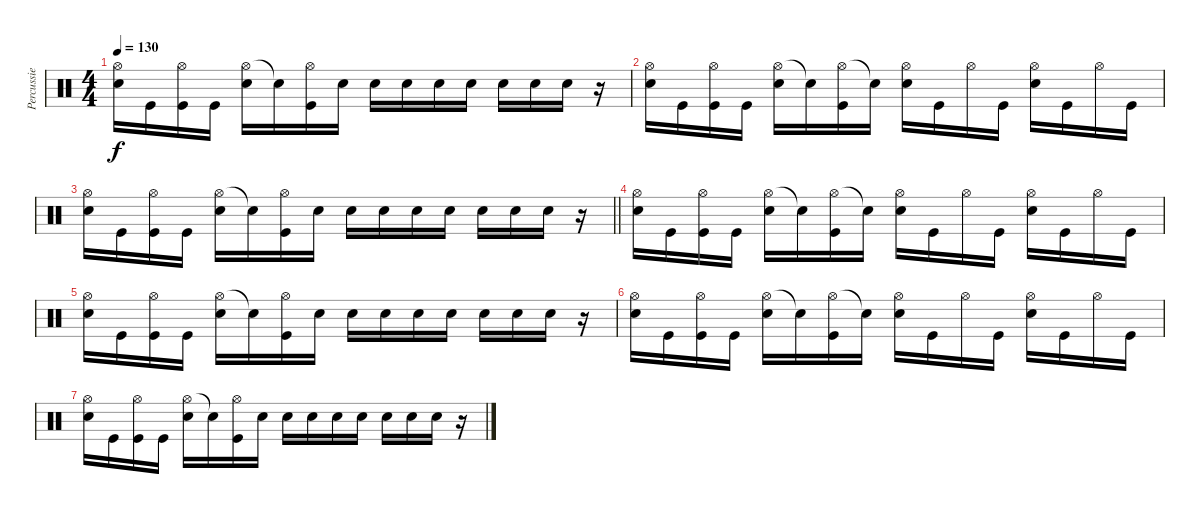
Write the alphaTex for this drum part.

\track ("Percussie" "Percussie") {instrument percussion}
\staff {score}
\articulation defaults
\ts (4 4)
\tempo 130
\clef neutral
\ks c
("Hi-Hat (open)" "Snare (hit) 2").16{dy f} "Kick (hit)".16 ("Hi-Hat (open)" "Kick (hit)").16 "Kick (hit)".16 ("Hi-Hat (open)" "Snare (hit) 2").16 "Snare (hit)"{t}.16 ("Hi-Hat (open)" "Kick (hit)").16 "Snare (hit) 2".16 "Snare (hit) 2".16 "Snare (hit) 2".16 "Snare (hit) 2".16 "Snare (hit) 2".16 "Snare (hit) 2".16 "Snare (hit) 2".16 "Snare (hit) 2".16 r.16 |
("Hi-Hat (open)" "Snare (hit) 2").16 "Kick (hit)".16 ("Hi-Hat (open)" "Kick (hit)").16 "Kick (hit)".16 ("Hi-Hat (open)" "Snare (hit) 2").16 "Snare (hit)"{t}.16 ("Hi-Hat (open)" "Kick (hit)").16 "Snare (hit)"{t}.16 ("Hi-Hat (open)" "Snare (hit) 2").16 "Kick (hit)".16 "Hi-Hat (open)".16 "Kick (hit)".16 ("Hi-Hat (open)" "Snare (hit) 2").16 "Kick (hit)".16 "Hi-Hat (open)".16 "Kick (hit)".16 |
\barLineRight lightlight
("Hi-Hat (open)" "Snare (hit) 2").16 "Kick (hit)".16 ("Hi-Hat (open)" "Kick (hit)").16 "Kick (hit)".16 ("Hi-Hat (open)" "Snare (hit) 2").16 "Snare (hit)"{t}.16 ("Hi-Hat (open)" "Kick (hit)").16 "Snare (hit) 2".16 "Snare (hit) 2".16 "Snare (hit) 2".16 "Snare (hit) 2".16 "Snare (hit) 2".16 "Snare (hit) 2".16 "Snare (hit) 2".16 "Snare (hit) 2".16 r.16 |
("Hi-Hat (open)" "Snare (hit) 2").16 "Kick (hit)".16 ("Hi-Hat (open)" "Kick (hit)").16 "Kick (hit)".16 ("Hi-Hat (open)" "Snare (hit) 2").16 "Snare (hit)"{t}.16 ("Hi-Hat (open)" "Kick (hit)").16 "Snare (hit)"{t}.16 ("Hi-Hat (open)" "Snare (hit) 2").16 "Kick (hit)".16 "Hi-Hat (open)".16 "Kick (hit)".16 ("Hi-Hat (open)" "Snare (hit) 2").16 "Kick (hit)".16 "Hi-Hat (open)".16 "Kick (hit)".16 |
("Hi-Hat (open)" "Snare (hit) 2").16 "Kick (hit)".16 ("Hi-Hat (open)" "Kick (hit)").16 "Kick (hit)".16 ("Hi-Hat (open)" "Snare (hit) 2").16 "Snare (hit)"{t}.16 ("Hi-Hat (open)" "Kick (hit)").16 "Snare (hit) 2".16 "Snare (hit) 2".16 "Snare (hit) 2".16 "Snare (hit) 2".16 "Snare (hit) 2".16 "Snare (hit) 2".16 "Snare (hit) 2".16 "Snare (hit) 2".16 r.16 |
("Hi-Hat (open)" "Snare (hit) 2").16 "Kick (hit)".16 ("Hi-Hat (open)" "Kick (hit)").16 "Kick (hit)".16 ("Hi-Hat (open)" "Snare (hit) 2").16 "Snare (hit)"{t}.16 ("Hi-Hat (open)" "Kick (hit)").16 "Snare (hit)"{t}.16 ("Hi-Hat (open)" "Snare (hit) 2").16 "Kick (hit)".16 "Hi-Hat (open)".16 "Kick (hit)".16 ("Hi-Hat (open)" "Snare (hit) 2").16 "Kick (hit)".16 "Hi-Hat (open)".16 "Kick (hit)".16 |
("Hi-Hat (open)" "Snare (hit) 2").16 "Kick (hit)".16 ("Hi-Hat (open)" "Kick (hit)").16 "Kick (hit)".16 ("Hi-Hat (open)" "Snare (hit) 2").16 "Snare (hit)"{t}.16 ("Hi-Hat (open)" "Kick (hit)").16 "Snare (hit) 2".16 "Snare (hit) 2".16 "Snare (hit) 2".16 "Snare (hit) 2".16 "Snare (hit) 2".16 "Snare (hit) 2".16 "Snare (hit) 2".16 "Snare (hit) 2".16 r.16
